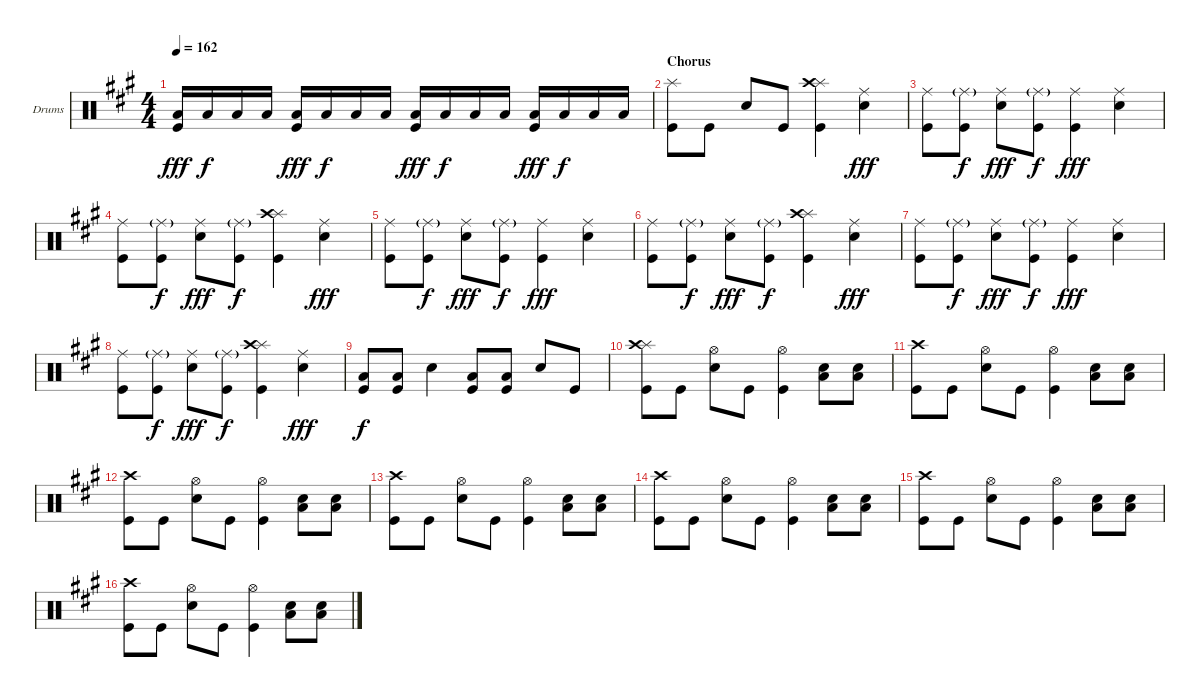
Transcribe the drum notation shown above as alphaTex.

\defaultSystemsLayout 4
\bracketExtendMode groupsimilarinstruments
\firstSystemTrackNameOrientation horizontal
\otherSystemsTrackNameOrientation horizontal
\track ("Drums" "Drums") {instrument percussion}
\staff {score}
\articulation defaults
\ts (4 4)
\tempo 162
\clef neutral
\scale
1.05801
\ks a
("Low Tom (hit)" "Kick (hit)").16{dy fff} "Low Tom (hit)".16{dy f} "Low Tom (hit)".16 "Low Tom (hit)".16 ("Low Tom (hit)" "Kick (hit)").16{dy fff} "Low Tom (hit)".16{dy f} "Low Tom (hit)".16 "Low Tom (hit)".16 ("Low Tom (hit)" "Kick (hit)").16{dy fff} "Low Tom (hit)".16{dy f} "Low Tom (hit)".16 "Low Tom (hit)".16 ("Low Tom (hit)" "Kick (hit)").16{dy fff} "Low Tom (hit)".16{dy f} "Low Tom (hit)".16 "Low Tom (hit)".16 |
\section ("" "Chorus")
\scale
0.941992 ("Splash (hit)" "Kick (hit)").8 "Kick (hit)".8 "Snare (hit) 2".8 "Kick (hit)".8 ("Splash (hit)" "Crash high (hit)" "Kick (hit)").4 ("Ride (middle)" "Snare (hit) 2").4{dy fff} |
\scale
1.05801 ("Ride (middle)" "Kick (hit)").8 ("Ride (middle)"{g} "Kick (hit)").8{dy f} ("Ride (middle)" "Snare (hit) 2").8{dy fff} ("Ride (middle)"{g} "Kick (hit)").8{dy f} ("Ride (middle)" "Kick (hit)").4{dy fff} ("Ride (middle)" "Snare (hit) 2").4 |
\scale
0.941992 ("Ride (middle)" "Kick (hit)").8 ("Ride (middle)"{g} "Kick (hit)").8{dy f} ("Ride (middle)" "Snare (hit) 2").8{dy fff} ("Ride (middle)"{g} "Kick (hit)").8{dy f} ("Splash (hit)" "Crash high (hit)" "Kick (hit)").4 ("Ride (middle)" "Snare (hit) 2").4{dy fff} |
\scale
1.05801 ("Ride (middle)" "Kick (hit)").8 ("Ride (middle)"{g} "Kick (hit)").8{dy f} ("Ride (middle)" "Snare (hit) 2").8{dy fff} ("Ride (middle)"{g} "Kick (hit)").8{dy f} ("Ride (middle)" "Kick (hit)").4{dy fff} ("Ride (middle)" "Snare (hit) 2").4 |
\scale
0.941992 ("Ride (middle)" "Kick (hit)").8 ("Ride (middle)"{g} "Kick (hit)").8{dy f} ("Ride (middle)" "Snare (hit) 2").8{dy fff} ("Ride (middle)"{g} "Kick (hit)").8{dy f} ("Splash (hit)" "Crash high (hit)" "Kick (hit)").4 ("Ride (middle)" "Snare (hit) 2").4{dy fff} |
\scale
1.05801 ("Ride (middle)" "Kick (hit)").8 ("Ride (middle)"{g} "Kick (hit)").8{dy f} ("Ride (middle)" "Snare (hit) 2").8{dy fff} ("Ride (middle)"{g} "Kick (hit)").8{dy f} ("Ride (middle)" "Kick (hit)").4{dy fff} ("Ride (middle)" "Snare (hit) 2").4 |
\scale
0.941992 ("Ride (middle)" "Kick (hit)").8 ("Ride (middle)"{g} "Kick (hit)").8{dy f} ("Ride (middle)" "Snare (hit) 2").8{dy fff} ("Ride (middle)"{g} "Kick (hit)").8{dy f} ("Splash (hit)" "Crash high (hit)" "Kick (hit)").4 ("Ride (middle)" "Snare (hit) 2").4{dy fff} |
\scale
1.05801 ("Low Tom (hit)" "Kick (hit)").8{dy f} ("Low Tom (hit)" "Kick (hit)").8 "Snare (hit) 2".4 ("Low Tom (hit)" "Kick (hit)").8 ("Low Tom (hit)" "Kick (hit)").8 "Snare (hit) 2".8 "Kick (hit)".8 |
\scale
0.941992 ("Splash (hit)" "Crash high (hit)" "Kick (hit)").8 "Kick (hit)".8 ("Hi-Hat (open)" "Snare (hit) 2").8 "Kick (hit)".8 ("Hi-Hat (open)" "Kick (hit)").4 ("Snare (hit) 2" "Low Tom (hit)").8 ("Snare (hit) 2" "Low Tom (hit)").8 |
\scale
1.05801 ("Crash high (hit)" "Kick (hit)").8 "Kick (hit)".8 ("Hi-Hat (open)" "Snare (hit) 2").8 "Kick (hit)".8 ("Hi-Hat (open)" "Kick (hit)").4 ("Snare (hit) 2" "Low Tom (hit)").8 ("Snare (hit) 2" "Low Tom (hit)").8 |
\scale
0.941992 ("Crash high (hit)" "Kick (hit)").8 "Kick (hit)".8 ("Hi-Hat (open)" "Snare (hit) 2").8 "Kick (hit)".8 ("Hi-Hat (open)" "Kick (hit)").4 ("Snare (hit) 2" "Low Tom (hit)").8 ("Snare (hit) 2" "Low Tom (hit)").8 |
\scale
1.05801 ("Crash high (hit)" "Kick (hit)").8 "Kick (hit)".8 ("Hi-Hat (open)" "Snare (hit) 2").8 "Kick (hit)".8 ("Hi-Hat (open)" "Kick (hit)").4 ("Snare (hit) 2" "Low Tom (hit)").8 ("Snare (hit) 2" "Low Tom (hit)").8 |
\scale
0.941992 ("Crash high (hit)" "Kick (hit)").8 "Kick (hit)".8 ("Hi-Hat (open)" "Snare (hit) 2").8 "Kick (hit)".8 ("Hi-Hat (open)" "Kick (hit)").4 ("Snare (hit) 2" "Low Tom (hit)").8 ("Snare (hit) 2" "Low Tom (hit)").8 |
\scale
1.05801 ("Crash high (hit)" "Kick (hit)").8 "Kick (hit)".8 ("Hi-Hat (open)" "Snare (hit) 2").8 "Kick (hit)".8 ("Hi-Hat (open)" "Kick (hit)").4 ("Snare (hit) 2" "Low Tom (hit)").8 ("Snare (hit) 2" "Low Tom (hit)").8 |
\scale
0.941992 ("Crash high (hit)" "Kick (hit)").8 "Kick (hit)".8 ("Hi-Hat (open)" "Snare (hit) 2").8 "Kick (hit)".8 ("Hi-Hat (open)" "Kick (hit)").4 ("Snare (hit) 2" "Low Tom (hit)").8 ("Snare (hit) 2" "Low Tom (hit)").8
